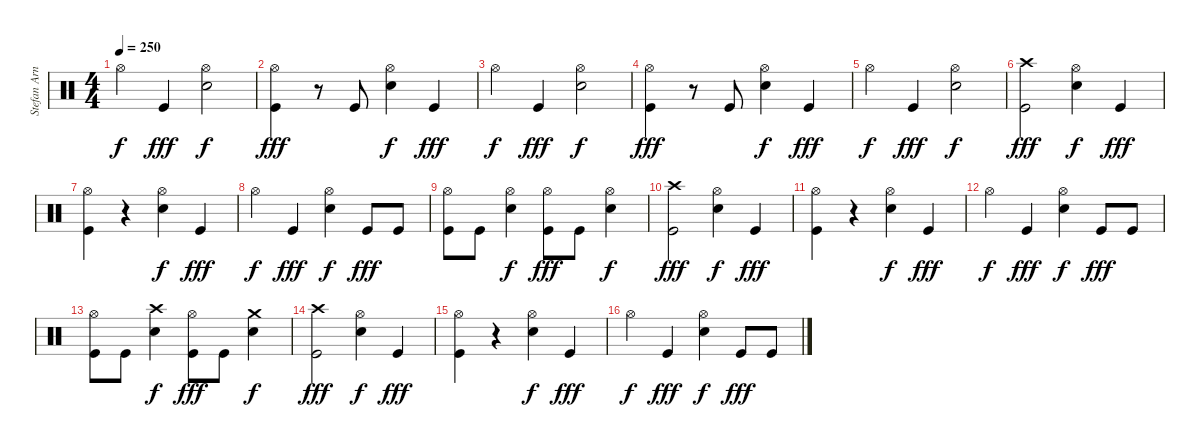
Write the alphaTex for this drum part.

\track ("Stefan Arnold (Batería)" "Stefan Arn") {instrument percussion}
\staff {score}
\articulation defaults
\ts (4 4)
\tempo 250
\clef neutral
\ks c "Hi-Hat (open)".4{dy f} "Kick (hit)".4{dy fff}
("Hi-Hat (open)" "Electric Snare (hit)").2{dy f} |
("Hi-Hat (open)" "Kick (hit)").4{dy fff} r.8 "Kick (hit)".8 ("Hi-Hat (open)" "Electric Snare (hit)").4{dy f} "Kick (hit)".4{dy fff} |
"Hi-Hat (open)".4{dy f} "Kick (hit)".4{dy fff} ("Hi-Hat (open)" "Electric Snare (hit)").2{dy f} |
("Hi-Hat (open)" "Kick (hit)").4{dy fff} r.8 "Kick (hit)".8 ("Hi-Hat (open)" "Electric Snare (hit)").4{dy f} "Kick (hit)".4{dy fff} |
"Hi-Hat (open)".4{dy f} "Kick (hit)".4{dy fff} ("Hi-Hat (open)" "Electric Snare (hit)").2{dy f} |
("Crash high (hit)" "Kick (hit)").2{dy fff} ("Hi-Hat (open)" "Electric Snare (hit)").4{dy f} "Kick (hit)".4{dy fff} |
("Hi-Hat (open)" "Kick (hit)").4 r.4 ("Hi-Hat (open)" "Electric Snare (hit)").4{dy f} "Kick (hit)".4{dy fff} |
"Hi-Hat (open)".4{dy f} "Kick (hit)".4{dy fff} ("Hi-Hat (open)" "Electric Snare (hit)").4{dy f} "Kick (hit)".8{dy fff} "Kick (hit)".8 |
("Hi-Hat (open)" "Kick (hit)").8 "Kick (hit)".8 ("Hi-Hat (open)" "Electric Snare (hit)").4{dy f} ("Hi-Hat (open)" "Kick (hit)").8{dy fff} "Kick (hit)".8 ("Hi-Hat (open)" "Electric Snare (hit)").4{dy f} |
("Crash high (hit)" "Kick (hit)").2{dy fff} ("Hi-Hat (open)" "Electric Snare (hit)").4{dy f} "Kick (hit)".4{dy fff} |
("Hi-Hat (open)" "Kick (hit)").4 r.4 ("Hi-Hat (open)" "Electric Snare (hit)").4{dy f} "Kick (hit)".4{dy fff} |
"Hi-Hat (open)".4{dy f} "Kick (hit)".4{dy fff} ("Hi-Hat (open)" "Electric Snare (hit)").4{dy f} "Kick (hit)".8{dy fff} "Kick (hit)".8 |
("Hi-Hat (open)" "Kick (hit)").8 "Kick (hit)".8 ("Crash high (hit)" "Electric Snare (hit)").4{dy f} ("Hi-Hat (open)" "Kick (hit)").8{dy fff} "Kick (hit)".8 ("Crash medium (hit)" "Electric Snare (hit)").4{dy f} |
("Crash high (hit)" "Kick (hit)").2{dy fff} ("Hi-Hat (open)" "Electric Snare (hit)").4{dy f} "Kick (hit)".4{dy fff} |
("Hi-Hat (open)" "Kick (hit)").4 r.4 ("Hi-Hat (open)" "Electric Snare (hit)").4{dy f} "Kick (hit)".4{dy fff} |
"Hi-Hat (open)".4{dy f} "Kick (hit)".4{dy fff} ("Hi-Hat (open)" "Electric Snare (hit)").4{dy f} "Kick (hit)".8{dy fff} "Kick (hit)".8
